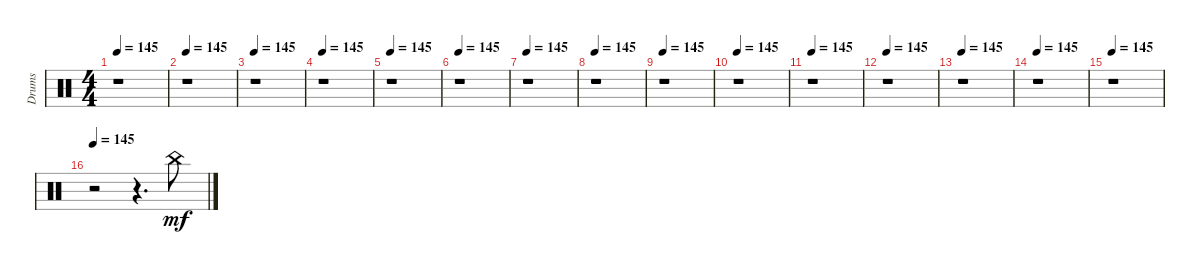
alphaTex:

\track ("Drums" "Drums") {instrument percussion}
\staff {score}
\articulation defaults
\ts (4 4)
\tempo 145
\clef neutral
\ks c
r.1{dy mf} |
\tempo 145
r.1 |
\tempo 145
r.1 |
\tempo 145
r.1 |
\tempo 145
r.1 |
\tempo 145
r.1 |
\tempo 145
r.1 |
\tempo 145
r.1 |
\tempo 145
r.1 |
\tempo 145
r.1 |
\tempo 145
r.1 |
\tempo 145
r.1 |
\tempo 145
r.1 |
\tempo 145
r.1 |
\tempo 145
r.1 |
\tempo 145
r.2 r.4{d} "China (hit)".8
